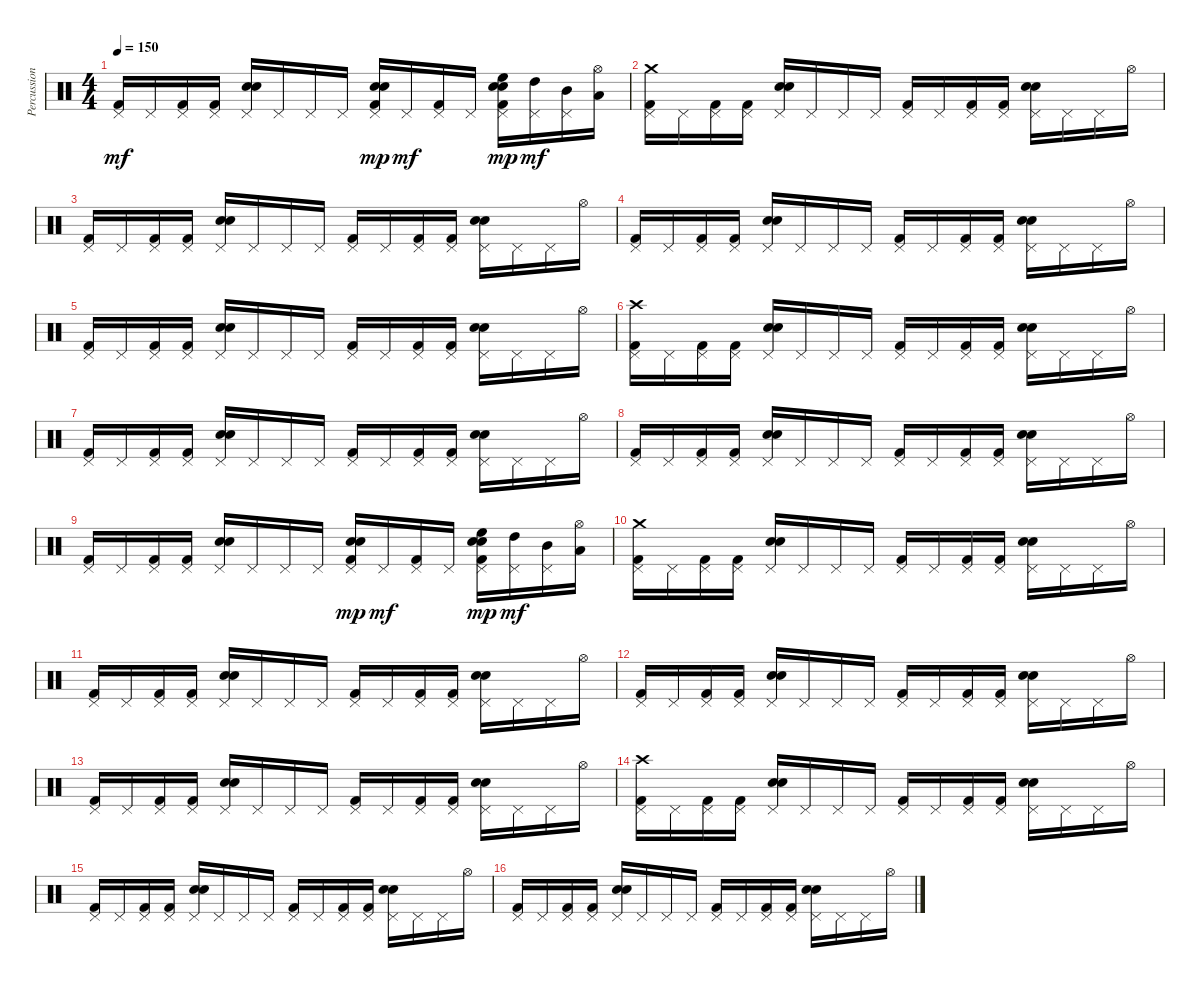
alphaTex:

\track ("Percussion (Power Kit)" "Percussion") {instrument percussion}
\staff {score}
\articulation defaults
\ts (4 4)
\tempo 150
\clef neutral
\ks c
("Kick (hit) 2" "Pedal Hi-Hat (hit)").16{dy mf} "Pedal Hi-Hat (hit)".16 ("Pedal Hi-Hat (hit)" "Kick (hit) 2").16 ("Pedal Hi-Hat (hit)" "Kick (hit) 2").16 ("Electric Snare (hit)" "Snare (hit) 2" "Pedal Hi-Hat (hit)").16 "Pedal Hi-Hat (hit)".16 "Pedal Hi-Hat (hit)".16 "Pedal Hi-Hat (hit)".16 ("Pedal Hi-Hat (hit)" "Electric Snare (hit)" "Kick (hit) 2" "Snare (hit) 2").16{dy mp} "Pedal Hi-Hat (hit)".16{dy mf} ("Pedal Hi-Hat (hit)" "Kick (hit) 2").16 "Pedal Hi-Hat (hit)".16 ("Pedal Hi-Hat (hit)" "Kick (hit) 2" "Electric Snare (hit)" "Snare (hit) 2" "High Floor Tom (hit)").16{dy mp} ("Pedal Hi-Hat (hit)" "High Tom (hit)").16{dy mf} ("Pedal Hi-Hat (hit)" "Mid Tom (hit)").16 ("Hi-Hat (open)" "Low Tom (hit)").16 |
("Kick (hit) 2" "Pedal Hi-Hat (hit)" "Crash medium (hit)").16 "Pedal Hi-Hat (hit)".16 ("Pedal Hi-Hat (hit)" "Kick (hit) 2").16 ("Pedal Hi-Hat (hit)" "Kick (hit) 2").16 ("Electric Snare (hit)" "Snare (hit) 2" "Pedal Hi-Hat (hit)").16 "Pedal Hi-Hat (hit)".16 "Pedal Hi-Hat (hit)".16 "Pedal Hi-Hat (hit)".16 ("Kick (hit) 2" "Pedal Hi-Hat (hit)").16 "Pedal Hi-Hat (hit)".16 ("Pedal Hi-Hat (hit)" "Kick (hit) 2").16 ("Pedal Hi-Hat (hit)" "Kick (hit) 2").16 ("Electric Snare (hit)" "Snare (hit) 2" "Pedal Hi-Hat (hit)").16 "Pedal Hi-Hat (hit)".16 "Pedal Hi-Hat (hit)".16 "Hi-Hat (open)".16 |
("Kick (hit) 2" "Pedal Hi-Hat (hit)").16 "Pedal Hi-Hat (hit)".16 ("Pedal Hi-Hat (hit)" "Kick (hit) 2").16 ("Pedal Hi-Hat (hit)" "Kick (hit) 2").16 ("Electric Snare (hit)" "Snare (hit) 2" "Pedal Hi-Hat (hit)").16 "Pedal Hi-Hat (hit)".16 "Pedal Hi-Hat (hit)".16 "Pedal Hi-Hat (hit)".16 ("Kick (hit) 2" "Pedal Hi-Hat (hit)").16 "Pedal Hi-Hat (hit)".16 ("Pedal Hi-Hat (hit)" "Kick (hit) 2").16 ("Pedal Hi-Hat (hit)" "Kick (hit) 2").16 ("Electric Snare (hit)" "Snare (hit) 2" "Pedal Hi-Hat (hit)").16 "Pedal Hi-Hat (hit)".16 "Pedal Hi-Hat (hit)".16 "Hi-Hat (open)".16 |
("Kick (hit) 2" "Pedal Hi-Hat (hit)").16 "Pedal Hi-Hat (hit)".16 ("Pedal Hi-Hat (hit)" "Kick (hit) 2").16 ("Pedal Hi-Hat (hit)" "Kick (hit) 2").16 ("Electric Snare (hit)" "Snare (hit) 2" "Pedal Hi-Hat (hit)").16 "Pedal Hi-Hat (hit)".16 "Pedal Hi-Hat (hit)".16 "Pedal Hi-Hat (hit)".16 ("Kick (hit) 2" "Pedal Hi-Hat (hit)").16 "Pedal Hi-Hat (hit)".16 ("Pedal Hi-Hat (hit)" "Kick (hit) 2").16 ("Pedal Hi-Hat (hit)" "Kick (hit) 2").16 ("Electric Snare (hit)" "Snare (hit) 2" "Pedal Hi-Hat (hit)").16 "Pedal Hi-Hat (hit)".16 "Pedal Hi-Hat (hit)".16 "Hi-Hat (open)".16 |
("Kick (hit) 2" "Pedal Hi-Hat (hit)").16 "Pedal Hi-Hat (hit)".16 ("Pedal Hi-Hat (hit)" "Kick (hit) 2").16 ("Pedal Hi-Hat (hit)" "Kick (hit) 2").16 ("Electric Snare (hit)" "Snare (hit) 2" "Pedal Hi-Hat (hit)").16 "Pedal Hi-Hat (hit)".16 "Pedal Hi-Hat (hit)".16 "Pedal Hi-Hat (hit)".16 ("Kick (hit) 2" "Pedal Hi-Hat (hit)").16 "Pedal Hi-Hat (hit)".16 ("Pedal Hi-Hat (hit)" "Kick (hit) 2").16 ("Pedal Hi-Hat (hit)" "Kick (hit) 2").16 ("Electric Snare (hit)" "Snare (hit) 2" "Pedal Hi-Hat (hit)").16 "Pedal Hi-Hat (hit)".16 "Pedal Hi-Hat (hit)".16 "Hi-Hat (open)".16 |
("Kick (hit) 2" "Pedal Hi-Hat (hit)" "Crash high (hit)").16 "Pedal Hi-Hat (hit)".16 ("Pedal Hi-Hat (hit)" "Kick (hit) 2").16 ("Pedal Hi-Hat (hit)" "Kick (hit) 2").16 ("Electric Snare (hit)" "Snare (hit) 2" "Pedal Hi-Hat (hit)").16 "Pedal Hi-Hat (hit)".16 "Pedal Hi-Hat (hit)".16 "Pedal Hi-Hat (hit)".16 ("Kick (hit) 2" "Pedal Hi-Hat (hit)").16 "Pedal Hi-Hat (hit)".16 ("Pedal Hi-Hat (hit)" "Kick (hit) 2").16 ("Pedal Hi-Hat (hit)" "Kick (hit) 2").16 ("Electric Snare (hit)" "Snare (hit) 2" "Pedal Hi-Hat (hit)").16 "Pedal Hi-Hat (hit)".16 "Pedal Hi-Hat (hit)".16 "Hi-Hat (open)".16 |
("Kick (hit) 2" "Pedal Hi-Hat (hit)").16 "Pedal Hi-Hat (hit)".16 ("Pedal Hi-Hat (hit)" "Kick (hit) 2").16 ("Pedal Hi-Hat (hit)" "Kick (hit) 2").16 ("Electric Snare (hit)" "Snare (hit) 2" "Pedal Hi-Hat (hit)").16 "Pedal Hi-Hat (hit)".16 "Pedal Hi-Hat (hit)".16 "Pedal Hi-Hat (hit)".16 ("Kick (hit) 2" "Pedal Hi-Hat (hit)").16 "Pedal Hi-Hat (hit)".16 ("Pedal Hi-Hat (hit)" "Kick (hit) 2").16 ("Pedal Hi-Hat (hit)" "Kick (hit) 2").16 ("Electric Snare (hit)" "Snare (hit) 2" "Pedal Hi-Hat (hit)").16 "Pedal Hi-Hat (hit)".16 "Pedal Hi-Hat (hit)".16 "Hi-Hat (open)".16 |
("Kick (hit) 2" "Pedal Hi-Hat (hit)").16 "Pedal Hi-Hat (hit)".16 ("Pedal Hi-Hat (hit)" "Kick (hit) 2").16 ("Pedal Hi-Hat (hit)" "Kick (hit) 2").16 ("Electric Snare (hit)" "Snare (hit) 2" "Pedal Hi-Hat (hit)").16 "Pedal Hi-Hat (hit)".16 "Pedal Hi-Hat (hit)".16 "Pedal Hi-Hat (hit)".16 ("Kick (hit) 2" "Pedal Hi-Hat (hit)").16 "Pedal Hi-Hat (hit)".16 ("Pedal Hi-Hat (hit)" "Kick (hit) 2").16 ("Pedal Hi-Hat (hit)" "Kick (hit) 2").16 ("Electric Snare (hit)" "Snare (hit) 2" "Pedal Hi-Hat (hit)").16 "Pedal Hi-Hat (hit)".16 "Pedal Hi-Hat (hit)".16 "Hi-Hat (open)".16 |
("Kick (hit) 2" "Pedal Hi-Hat (hit)").16 "Pedal Hi-Hat (hit)".16 ("Pedal Hi-Hat (hit)" "Kick (hit) 2").16 ("Pedal Hi-Hat (hit)" "Kick (hit) 2").16 ("Electric Snare (hit)" "Snare (hit) 2" "Pedal Hi-Hat (hit)").16 "Pedal Hi-Hat (hit)".16 "Pedal Hi-Hat (hit)".16 "Pedal Hi-Hat (hit)".16 ("Pedal Hi-Hat (hit)" "Electric Snare (hit)" "Kick (hit) 2" "Snare (hit) 2").16{dy mp} "Pedal Hi-Hat (hit)".16{dy mf} ("Pedal Hi-Hat (hit)" "Kick (hit) 2").16 "Pedal Hi-Hat (hit)".16 ("Pedal Hi-Hat (hit)" "Kick (hit) 2" "Electric Snare (hit)" "Snare (hit) 2" "High Floor Tom (hit)").16{dy mp} ("Pedal Hi-Hat (hit)" "High Tom (hit)").16{dy mf} ("Pedal Hi-Hat (hit)" "Mid Tom (hit)").16 ("Hi-Hat (open)" "Low Tom (hit)").16 |
("Kick (hit) 2" "Pedal Hi-Hat (hit)" "Crash medium (hit)").16 "Pedal Hi-Hat (hit)".16 ("Pedal Hi-Hat (hit)" "Kick (hit) 2").16 ("Pedal Hi-Hat (hit)" "Kick (hit) 2").16 ("Electric Snare (hit)" "Snare (hit) 2" "Pedal Hi-Hat (hit)").16 "Pedal Hi-Hat (hit)".16 "Pedal Hi-Hat (hit)".16 "Pedal Hi-Hat (hit)".16 ("Kick (hit) 2" "Pedal Hi-Hat (hit)").16 "Pedal Hi-Hat (hit)".16 ("Pedal Hi-Hat (hit)" "Kick (hit) 2").16 ("Pedal Hi-Hat (hit)" "Kick (hit) 2").16 ("Electric Snare (hit)" "Snare (hit) 2" "Pedal Hi-Hat (hit)").16 "Pedal Hi-Hat (hit)".16 "Pedal Hi-Hat (hit)".16 "Hi-Hat (open)".16 |
("Kick (hit) 2" "Pedal Hi-Hat (hit)").16 "Pedal Hi-Hat (hit)".16 ("Pedal Hi-Hat (hit)" "Kick (hit) 2").16 ("Pedal Hi-Hat (hit)" "Kick (hit) 2").16 ("Electric Snare (hit)" "Snare (hit) 2" "Pedal Hi-Hat (hit)").16 "Pedal Hi-Hat (hit)".16 "Pedal Hi-Hat (hit)".16 "Pedal Hi-Hat (hit)".16 ("Kick (hit) 2" "Pedal Hi-Hat (hit)").16 "Pedal Hi-Hat (hit)".16 ("Pedal Hi-Hat (hit)" "Kick (hit) 2").16 ("Pedal Hi-Hat (hit)" "Kick (hit) 2").16 ("Electric Snare (hit)" "Snare (hit) 2" "Pedal Hi-Hat (hit)").16 "Pedal Hi-Hat (hit)".16 "Pedal Hi-Hat (hit)".16 "Hi-Hat (open)".16 |
("Kick (hit) 2" "Pedal Hi-Hat (hit)").16 "Pedal Hi-Hat (hit)".16 ("Pedal Hi-Hat (hit)" "Kick (hit) 2").16 ("Pedal Hi-Hat (hit)" "Kick (hit) 2").16 ("Electric Snare (hit)" "Snare (hit) 2" "Pedal Hi-Hat (hit)").16 "Pedal Hi-Hat (hit)".16 "Pedal Hi-Hat (hit)".16 "Pedal Hi-Hat (hit)".16 ("Kick (hit) 2" "Pedal Hi-Hat (hit)").16 "Pedal Hi-Hat (hit)".16 ("Pedal Hi-Hat (hit)" "Kick (hit) 2").16 ("Pedal Hi-Hat (hit)" "Kick (hit) 2").16 ("Electric Snare (hit)" "Snare (hit) 2" "Pedal Hi-Hat (hit)").16 "Pedal Hi-Hat (hit)".16 "Pedal Hi-Hat (hit)".16 "Hi-Hat (open)".16 |
("Kick (hit) 2" "Pedal Hi-Hat (hit)").16 "Pedal Hi-Hat (hit)".16 ("Pedal Hi-Hat (hit)" "Kick (hit) 2").16 ("Pedal Hi-Hat (hit)" "Kick (hit) 2").16 ("Electric Snare (hit)" "Snare (hit) 2" "Pedal Hi-Hat (hit)").16 "Pedal Hi-Hat (hit)".16 "Pedal Hi-Hat (hit)".16 "Pedal Hi-Hat (hit)".16 ("Kick (hit) 2" "Pedal Hi-Hat (hit)").16 "Pedal Hi-Hat (hit)".16 ("Pedal Hi-Hat (hit)" "Kick (hit) 2").16 ("Pedal Hi-Hat (hit)" "Kick (hit) 2").16 ("Electric Snare (hit)" "Snare (hit) 2" "Pedal Hi-Hat (hit)").16 "Pedal Hi-Hat (hit)".16 "Pedal Hi-Hat (hit)".16 "Hi-Hat (open)".16 |
("Kick (hit) 2" "Pedal Hi-Hat (hit)" "Crash high (hit)").16 "Pedal Hi-Hat (hit)".16 ("Pedal Hi-Hat (hit)" "Kick (hit) 2").16 ("Pedal Hi-Hat (hit)" "Kick (hit) 2").16 ("Electric Snare (hit)" "Snare (hit) 2" "Pedal Hi-Hat (hit)").16 "Pedal Hi-Hat (hit)".16 "Pedal Hi-Hat (hit)".16 "Pedal Hi-Hat (hit)".16 ("Kick (hit) 2" "Pedal Hi-Hat (hit)").16 "Pedal Hi-Hat (hit)".16 ("Pedal Hi-Hat (hit)" "Kick (hit) 2").16 ("Pedal Hi-Hat (hit)" "Kick (hit) 2").16 ("Electric Snare (hit)" "Snare (hit) 2" "Pedal Hi-Hat (hit)").16 "Pedal Hi-Hat (hit)".16 "Pedal Hi-Hat (hit)".16 "Hi-Hat (open)".16 |
("Kick (hit) 2" "Pedal Hi-Hat (hit)").16 "Pedal Hi-Hat (hit)".16 ("Pedal Hi-Hat (hit)" "Kick (hit) 2").16 ("Pedal Hi-Hat (hit)" "Kick (hit) 2").16 ("Electric Snare (hit)" "Snare (hit) 2" "Pedal Hi-Hat (hit)").16 "Pedal Hi-Hat (hit)".16 "Pedal Hi-Hat (hit)".16 "Pedal Hi-Hat (hit)".16 ("Kick (hit) 2" "Pedal Hi-Hat (hit)").16 "Pedal Hi-Hat (hit)".16 ("Pedal Hi-Hat (hit)" "Kick (hit) 2").16 ("Pedal Hi-Hat (hit)" "Kick (hit) 2").16 ("Electric Snare (hit)" "Snare (hit) 2" "Pedal Hi-Hat (hit)").16 "Pedal Hi-Hat (hit)".16 "Pedal Hi-Hat (hit)".16 "Hi-Hat (open)".16 |
("Kick (hit) 2" "Pedal Hi-Hat (hit)").16 "Pedal Hi-Hat (hit)".16 ("Pedal Hi-Hat (hit)" "Kick (hit) 2").16 ("Pedal Hi-Hat (hit)" "Kick (hit) 2").16 ("Electric Snare (hit)" "Snare (hit) 2" "Pedal Hi-Hat (hit)").16 "Pedal Hi-Hat (hit)".16 "Pedal Hi-Hat (hit)".16 "Pedal Hi-Hat (hit)".16 ("Kick (hit) 2" "Pedal Hi-Hat (hit)").16 "Pedal Hi-Hat (hit)".16 ("Pedal Hi-Hat (hit)" "Kick (hit) 2").16 ("Pedal Hi-Hat (hit)" "Kick (hit) 2").16 ("Electric Snare (hit)" "Snare (hit) 2" "Pedal Hi-Hat (hit)").16 "Pedal Hi-Hat (hit)".16 "Pedal Hi-Hat (hit)".16 "Hi-Hat (open)".16
